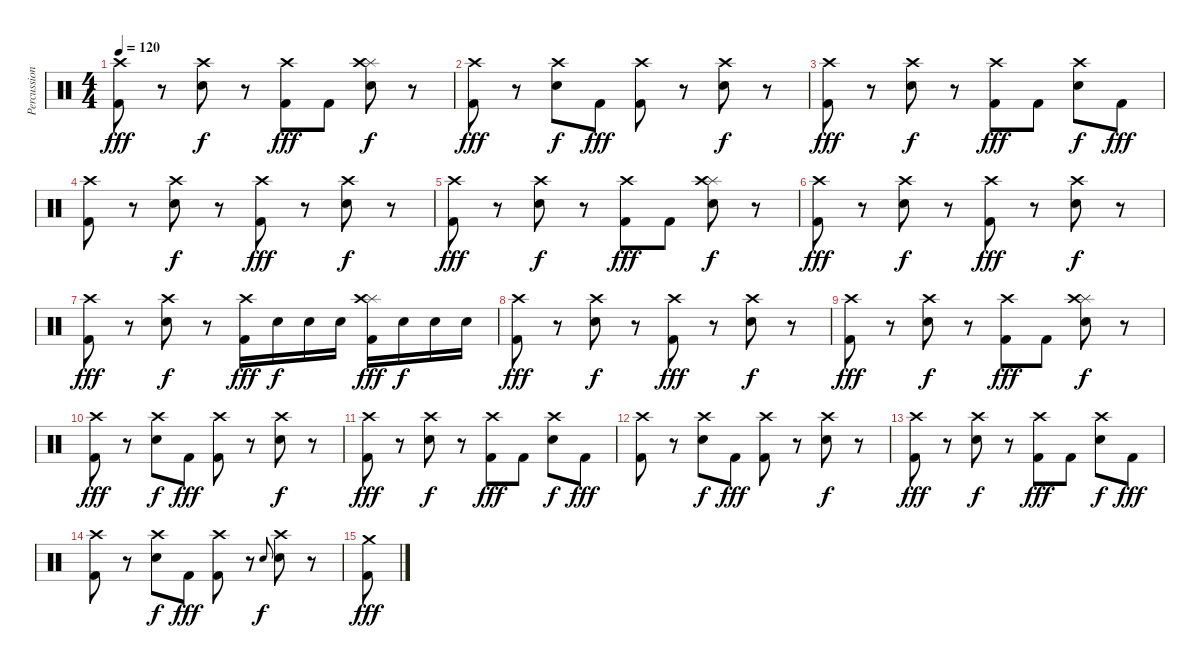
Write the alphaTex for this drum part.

\track ("Percussion" "Percussion") {instrument percussion}
\staff {score}
\articulation defaults
\ts (4 4)
\tempo 120
\clef neutral
\ks c
("Crash high (hit)" "Kick (hit) 2").8{dy fff} r.8 ("Electric Snare (hit)" "Crash high (hit)").8{dy f} r.8 ("Crash high (hit)" "Kick (hit) 2").8{dy fff} "Kick (hit) 2".8 ("Splash (hit)" "Electric Snare (hit)" "Crash high (hit)").8{dy f} r.8 |
("Crash high (hit)" "Kick (hit) 2").8{dy fff} r.8 ("Electric Snare (hit)" "Crash high (hit)").8{dy f} "Kick (hit) 2".8{dy fff} ("Crash high (hit)" "Kick (hit) 2").8 r.8 ("Electric Snare (hit)" "Crash high (hit)").8{dy f} r.8 |
("Crash high (hit)" "Kick (hit) 2").8{dy fff} r.8 ("Electric Snare (hit)" "Crash high (hit)").8{dy f} r.8 ("Crash high (hit)" "Kick (hit) 2").8{dy fff} "Kick (hit) 2".8 ("Electric Snare (hit)" "Crash high (hit)").8{dy f} "Kick (hit) 2".8{dy fff} |
("Crash high (hit)" "Kick (hit) 2").8 r.8 ("Electric Snare (hit)" "Crash high (hit)").8{dy f} r.8 ("Crash high (hit)" "Kick (hit) 2").8{dy fff} r.8 ("Electric Snare (hit)" "Crash high (hit)").8{dy f} r.8 |
("Crash high (hit)" "Kick (hit) 2").8{dy fff} r.8 ("Electric Snare (hit)" "Crash high (hit)").8{dy f} r.8 ("Crash high (hit)" "Kick (hit) 2").8{dy fff} "Kick (hit) 2".8 ("Splash (hit)" "Electric Snare (hit)" "Crash high (hit)").8{dy f} r.8 |
("Crash high (hit)" "Kick (hit) 2").8{dy fff} r.8 ("Electric Snare (hit)" "Crash high (hit)").8{dy f} r.8 ("Crash high (hit)" "Kick (hit) 2").8{dy fff} r.8 ("Electric Snare (hit)" "Crash high (hit)").8{dy f} r.8 |
("Crash high (hit)" "Kick (hit) 2").8{dy fff} r.8 ("Electric Snare (hit)" "Crash high (hit)").8{dy f} r.8 ("Crash high (hit)" "Kick (hit) 2").16{dy fff} "Snare (hit) 2".16{dy f} "Electric Snare (hit)".16 "Snare (hit) 2".16 ("Splash (hit)" "Crash high (hit)" "Kick (hit) 2").16{dy fff} "Snare (hit) 2".16{dy f} "Electric Snare (hit)".16 "Snare (hit) 2".16 |
("Crash high (hit)" "Kick (hit) 2").8{dy fff} r.8 ("Electric Snare (hit)" "Crash high (hit)").8{dy f} r.8 ("Crash high (hit)" "Kick (hit) 2").8{dy fff} r.8 ("Electric Snare (hit)" "Crash high (hit)").8{dy f} r.8 |
("Crash high (hit)" "Kick (hit) 2").8{dy fff} r.8 ("Electric Snare (hit)" "Crash high (hit)").8{dy f} r.8 ("Crash high (hit)" "Kick (hit) 2").8{dy fff} "Kick (hit) 2".8 ("Splash (hit)" "Electric Snare (hit)" "Crash high (hit)").8{dy f} r.8 |
("Crash high (hit)" "Kick (hit) 2").8{dy fff} r.8 ("Electric Snare (hit)" "Crash high (hit)").8{dy f} "Kick (hit) 2".8{dy fff} ("Crash high (hit)" "Kick (hit) 2").8 r.8 ("Electric Snare (hit)" "Crash high (hit)").8{dy f} r.8 |
("Crash high (hit)" "Kick (hit) 2").8{dy fff} r.8 ("Electric Snare (hit)" "Crash high (hit)").8{dy f} r.8 ("Crash high (hit)" "Kick (hit) 2").8{dy fff} "Kick (hit) 2".8 ("Electric Snare (hit)" "Crash high (hit)").8{dy f} "Kick (hit) 2".8{dy fff} |
("Crash high (hit)" "Kick (hit) 2").8 r.8 ("Electric Snare (hit)" "Crash high (hit)").8{dy f} "Kick (hit) 2".8{dy fff} ("Crash high (hit)" "Kick (hit) 2").8 r.8 ("Electric Snare (hit)" "Crash high (hit)").8{dy f} r.8 |
("Crash high (hit)" "Kick (hit) 2").8{dy fff} r.8 ("Electric Snare (hit)" "Crash high (hit)").8{dy f} r.8 ("Crash high (hit)" "Kick (hit) 2").8{dy fff} "Kick (hit) 2".8 ("Electric Snare (hit)" "Crash high (hit)").8{dy f} "Kick (hit) 2".8{dy fff} |
("Crash high (hit)" "Kick (hit) 2").8 r.8 ("Electric Snare (hit)" "Crash high (hit)").8{dy f} "Kick (hit) 2".8{dy fff} ("Crash high (hit)" "Kick (hit) 2").8 r.8 "Electric Snare (hit)".8{gr onbeat dy f} ("Electric Snare (hit)" "Crash high (hit)").8 r.8 |
("Crash medium (hit)" "Kick (hit) 2").8{dy fff}
